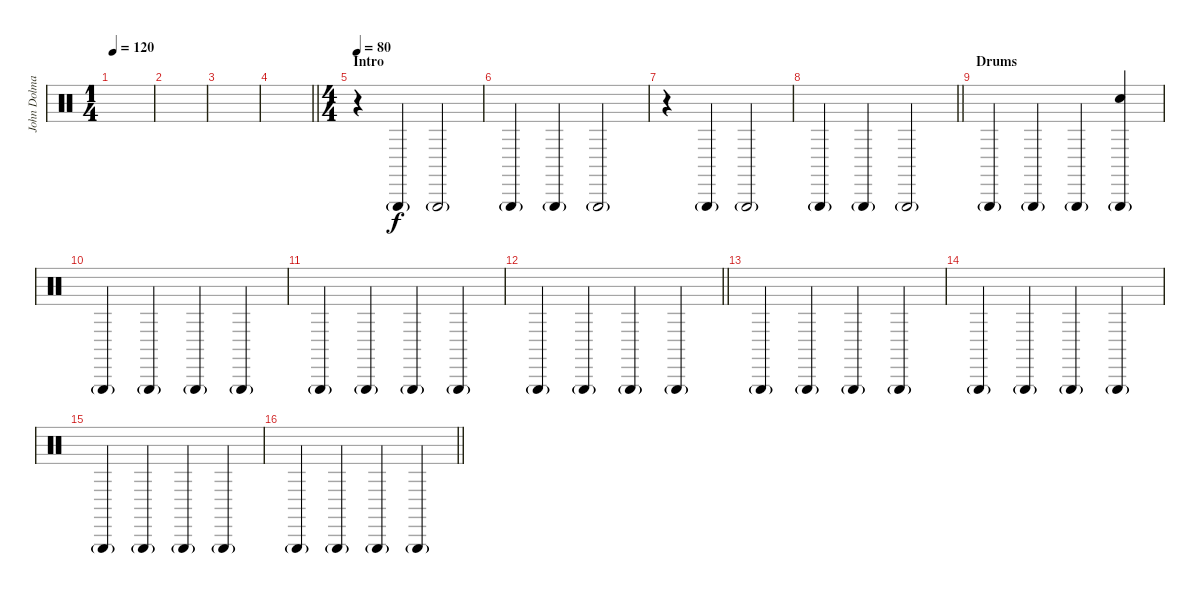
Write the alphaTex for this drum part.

\track ("John Dolmayan (extra)" "John Dolma") {instrument percussion}
\staff
\articulation defaults
\ts (1 4)
\tempo 120
\clef neutral
\ks c
|
|
|
\barLineRight lightlight
|
\ts (4 4)
\section ("" "Intro")
\tempo 80
r.4 "Triangle (hit)"{g}.4 "Triangle (hit)"{g}.2 |
"Triangle (hit)"{g}.4 "Triangle (hit)"{g}.4 "Triangle (hit)"{g}.2 |
r.4 "Triangle (hit)"{g}.4 "Triangle (hit)"{g}.2 |
\barLineRight lightlight "Triangle (hit)"{g}.4 "Triangle (hit)"{g}.4 "Triangle (hit)"{g}.2
|
\section ("" "Drums")
"Triangle (hit)"{g}.4{volume 16} "Triangle (hit)"{g}.4 "Triangle (hit)"{g}.4 ("Triangle (hit)"{g} "Snare (hit)").4 |
"Triangle (hit)"{g}.4 "Triangle (hit)"{g}.4 "Triangle (hit)"{g}.4 "Triangle (hit)"{g}.4 |
"Triangle (hit)"{g}.4 "Triangle (hit)"{g}.4 "Triangle (hit)"{g}.4 "Triangle (hit)"{g}.4 |
\barLineRight lightlight "Triangle (hit)"{g}.4 "Triangle (hit)"{g}.4 "Triangle (hit)"{g}.4 "Triangle (hit)"{g}.4
|
"Triangle (hit)"{g}.4 "Triangle (hit)"{g}.4 "Triangle (hit)"{g}.4 "Triangle (hit)"{g}.4 |
"Triangle (hit)"{g}.4 "Triangle (hit)"{g}.4 "Triangle (hit)"{g}.4 "Triangle (hit)"{g}.4 |
"Triangle (hit)"{g}.4 "Triangle (hit)"{g}.4 "Triangle (hit)"{g}.4 "Triangle (hit)"{g}.4 |
\barLineRight lightlight "Triangle (hit)"{g}.4 "Triangle (hit)"{g}.4 "Triangle (hit)"{g}.4 "Triangle (hit)"{g}.4
